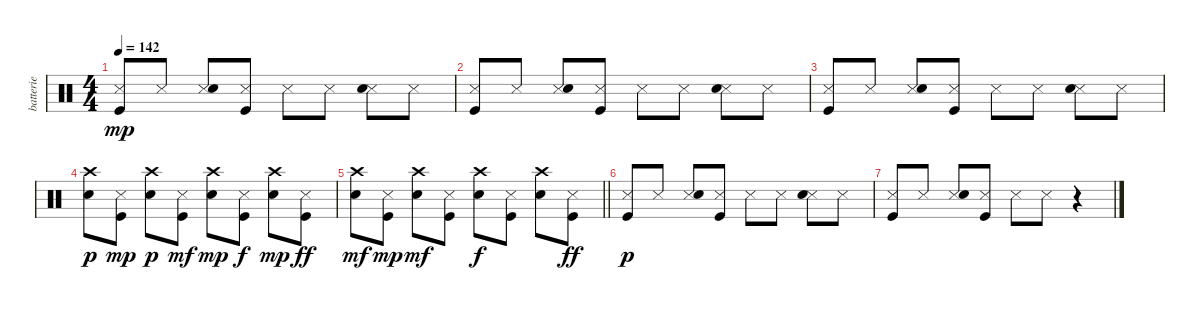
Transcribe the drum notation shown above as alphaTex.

\track ("batterie" "batterie") {instrument percussion}
\staff {score}
\articulation defaults
\ts (4 4)
\tempo 142
\clef neutral
\ks c
("Snare (side stick) 3" "Kick (hit)").8{dy mp} "Snare (side stick) 3".8 ("Snare (side stick) 3" "Electric Snare (hit)").8 ("Snare (side stick) 3" "Kick (hit)").8 "Snare (side stick) 3".8 "Snare (side stick) 3".8 ("Snare (side stick) 3" "Electric Snare (hit)").8 "Snare (side stick) 3".8 |
("Snare (side stick) 3" "Kick (hit)").8 "Snare (side stick) 3".8 ("Snare (side stick) 3" "Electric Snare (hit)").8 ("Snare (side stick) 3" "Kick (hit)").8 "Snare (side stick) 3".8 "Snare (side stick) 3".8 ("Snare (side stick) 3" "Electric Snare (hit)").8 "Snare (side stick) 3".8 |
("Snare (side stick) 3" "Kick (hit)").8 "Snare (side stick) 3".8 ("Snare (side stick) 3" "Electric Snare (hit)").8 ("Snare (side stick) 3" "Kick (hit)").8 "Snare (side stick) 3".8 "Snare (side stick) 3".8 ("Snare (side stick) 3" "Electric Snare (hit)").8 "Snare (side stick) 3".8 |
("Crash high (hit)" "Electric Snare (hit)").8{dy p} ("Snare (side stick) 3" "Kick (hit)").8{dy mp} ("Crash high (hit)" "Electric Snare (hit)").8{dy p} ("Snare (side stick) 3" "Kick (hit)").8{dy mf} ("Crash high (hit)" "Electric Snare (hit)").8{dy mp} ("Snare (side stick) 3" "Kick (hit)").8{dy f} ("Crash high (hit)" "Electric Snare (hit)").8{dy mp} ("Snare (side stick) 3" "Kick (hit)").8{dy ff} |
\barLineRight lightlight
("Crash high (hit)" "Electric Snare (hit)").8{dy mf} ("Snare (side stick) 3" "Kick (hit)").8{dy mp} ("Crash high (hit)" "Electric Snare (hit)").8{dy mf} ("Snare (side stick) 3" "Kick (hit)").8 ("Crash high (hit)" "Electric Snare (hit)").8{dy f} ("Snare (side stick) 3" "Kick (hit)").8 ("Crash high (hit)" "Electric Snare (hit)").8 ("Snare (side stick) 3" "Kick (hit)").8{dy ff} |
("Snare (side stick) 3" "Kick (hit)").8{dy p} "Snare (side stick) 3".8 ("Snare (side stick) 3" "Electric Snare (hit)").8 ("Snare (side stick) 3" "Kick (hit)").8 "Snare (side stick) 3".8 "Snare (side stick) 3".8 ("Snare (side stick) 3" "Electric Snare (hit)").8 "Snare (side stick) 3".8 |
("Snare (side stick) 3" "Kick (hit)").8 "Snare (side stick) 3".8 ("Snare (side stick) 3" "Electric Snare (hit)").8 ("Snare (side stick) 3" "Kick (hit)").8 "Snare (side stick) 3".8 "Snare (side stick) 3".8 r.4
